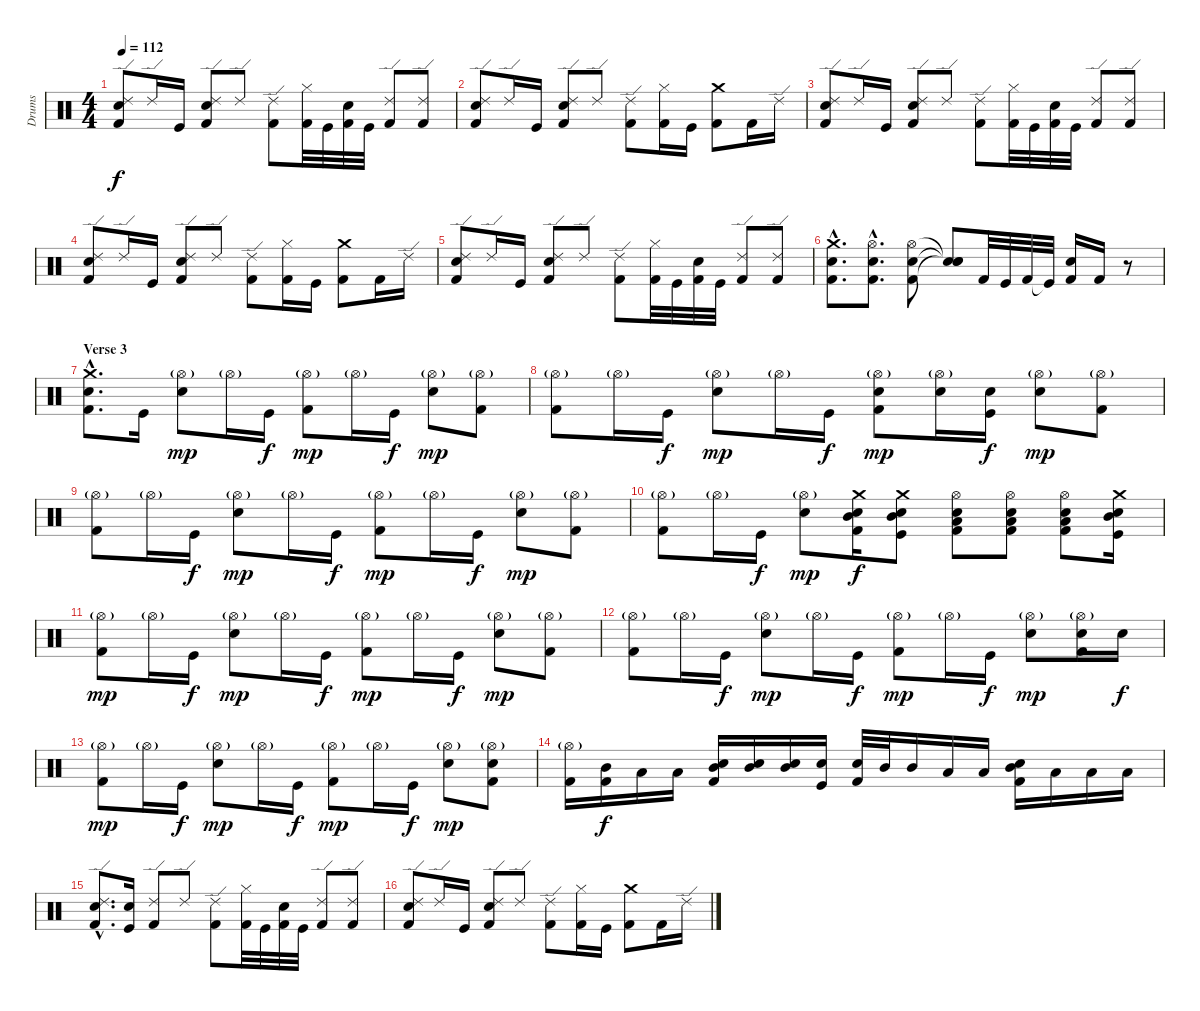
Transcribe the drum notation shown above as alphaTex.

\track ("Drums" "Drums") {instrument percussion}
\staff {score}
\articulation defaults
\ts (4 4)
\tempo 112
\clef neutral
\ks c
("Ride (edge) 2" "Snare (hit) 2" "Kick (hit) 2").8{dy f} "Ride (edge) 2".16 "Kick (hit)".16 ("Ride (edge) 2" "Snare (hit) 2" "Kick (hit) 2").8 "Ride (edge) 2".8 ("Ride (edge) 2" "Kick (hit) 2").8 ("Hi-Hat (closed)" "Kick (hit) 2").32 "Kick (hit)".32 ("Snare (hit) 2" "Kick (hit) 2").32 "Kick (hit)".32 ("Ride (edge) 2" "Kick (hit) 2").8 ("Ride (edge) 2" "Kick (hit) 2").8 |
("Ride (edge) 2" "Snare (hit) 2" "Kick (hit) 2").8 "Ride (edge) 2".16 "Kick (hit)".16 ("Ride (edge) 2" "Snare (hit) 2" "Kick (hit) 2").8 "Ride (edge) 2".8 ("Ride (edge) 2" "Kick (hit) 2").8 ("Hi-Hat (closed)" "Kick (hit) 2").16 "Kick (hit)".16 ("Crash medium (hit)" "Kick (hit) 2").8 "Kick (hit) 2".16 "Ride (edge) 2".16 |
("Ride (edge) 2" "Snare (hit) 2" "Kick (hit) 2").8 "Ride (edge) 2".16 "Kick (hit)".16 ("Ride (edge) 2" "Snare (hit) 2" "Kick (hit) 2").8 "Ride (edge) 2".8 ("Ride (edge) 2" "Kick (hit) 2").8 ("Hi-Hat (closed)" "Kick (hit) 2").32 "Kick (hit)".32 ("Snare (hit) 2" "Kick (hit) 2").32 "Kick (hit)".32 ("Ride (edge) 2" "Kick (hit) 2").8 ("Ride (edge) 2" "Kick (hit) 2").8 |
("Ride (edge) 2" "Snare (hit) 2" "Kick (hit) 2").8 "Ride (edge) 2".16 "Kick (hit)".16 ("Ride (edge) 2" "Snare (hit) 2" "Kick (hit) 2").8 "Ride (edge) 2".8 ("Ride (edge) 2" "Kick (hit) 2").8 ("Hi-Hat (closed)" "Kick (hit) 2").16 "Kick (hit)".16 ("Crash medium (hit)" "Kick (hit) 2").8 "Kick (hit) 2".16 "Ride (edge) 2".16 |
("Ride (edge) 2" "Snare (hit) 2" "Kick (hit) 2").8 "Ride (edge) 2".16 "Kick (hit)".16 ("Ride (edge) 2" "Snare (hit) 2" "Kick (hit) 2").8 "Ride (edge) 2".8 ("Ride (edge) 2" "Kick (hit) 2").8 ("Hi-Hat (closed)" "Kick (hit) 2").32 "Kick (hit)".32 ("Snare (hit) 2" "Kick (hit) 2").32 "Kick (hit)".32 ("Ride (edge) 2" "Kick (hit) 2").8 ("Ride (edge) 2" "Kick (hit) 2").8 |
("Crash medium (hit)"{hac} "Snare (hit) 2"{hac} "Kick (hit) 2"{hac}).8{d} ("Hi-Hat (open)"{hac} "Snare (hit) 2"{hac} "Kick (hit) 2"{hac}).8{d} ("Hi-Hat (open)" "Snare (hit) 2" "Kick (hit) 2").8 ("Snare (hit)"{t} "Snare (hit)"{t} "Snare (hit)"{t}).8 "Kick (hit) 2".32 "Kick (hit)".32 "Kick (hit) 2".32 "Kick (hit)"{t}.32 ("Snare (hit) 2" "Kick (hit) 2").16 "Kick (hit) 2".16 r.8 |
\section ("" "Verse 3")
("Crash medium (hit)"{hac} "Snare (hit) 2"{hac} "Kick (hit) 2"{hac}).8{d} "Kick (hit)".16 ("Hi-Hat (open)"{g} "Snare (hit) 2").8{dy mp} "Hi-Hat (open)"{g}.16 "Kick (hit)".16{dy f} ("Hi-Hat (open)"{g} "Kick (hit) 2").8{dy mp} "Hi-Hat (open)"{g}.16 "Kick (hit)".16{dy f} ("Hi-Hat (open)"{g} "Snare (hit) 2").8{dy mp} ("Hi-Hat (open)"{g} "Kick (hit) 2").8 |
("Hi-Hat (open)"{g} "Kick (hit) 2").8 "Hi-Hat (open)"{g}.16 "Kick (hit)".16{dy f} ("Hi-Hat (open)"{g} "Snare (hit) 2").8{dy mp} "Hi-Hat (open)"{g}.16 "Kick (hit)".16{dy f} ("Hi-Hat (open)"{g} "Snare (hit) 2" "Kick (hit) 2").8{dy mp} ("Hi-Hat (open)"{g} "Snare (hit) 2").16 ("Snare (hit) 2" "Kick (hit)").16{dy f} ("Hi-Hat (open)"{g} "Snare (hit) 2").8{dy mp} ("Hi-Hat (open)"{g} "Kick (hit) 2").8 |
("Hi-Hat (open)"{g} "Kick (hit) 2").8 "Hi-Hat (open)"{g}.16 "Kick (hit)".16{dy f} ("Hi-Hat (open)"{g} "Snare (hit) 2").8{dy mp} "Hi-Hat (open)"{g}.16 "Kick (hit)".16{dy f} ("Hi-Hat (open)"{g} "Kick (hit) 2").8{dy mp} "Hi-Hat (open)"{g}.16 "Kick (hit)".16{dy f} ("Hi-Hat (open)"{g} "Snare (hit) 2").8{dy mp} ("Hi-Hat (open)"{g} "Kick (hit) 2").8 |
("Hi-Hat (open)"{g} "Kick (hit) 2").8 "Hi-Hat (open)"{g}.16 "Kick (hit)".16{dy f} ("Hi-Hat (open)"{g} "Snare (hit) 2").8{dy mp} ("Crash medium (hit)" "Snare (hit) 2" "Kick (hit) 2" "Mid Tom (hit)").16{dy f} ("Crash medium (hit)" "Snare (hit) 2" "Kick (hit)" "Mid Tom (hit)").8 ("Hi-Hat (open)" "Snare (hit) 2" "Kick (hit) 2" "Low Tom (hit)").8 ("Hi-Hat (open)" "Snare (hit) 2" "Kick (hit) 2" "Low Tom (hit)").8 ("Hi-Hat (open)" "Snare (hit) 2" "Kick (hit) 2" "Low Tom (hit)").8 ("Crash medium (hit)" "Snare (hit) 2" "Kick (hit)" "Mid Tom (hit)").16 |
("Hi-Hat (open)"{g} "Kick (hit) 2").8{dy mp} "Hi-Hat (open)"{g}.16 "Kick (hit)".16{dy f} ("Hi-Hat (open)"{g} "Snare (hit) 2").8{dy mp} "Hi-Hat (open)"{g}.16 "Kick (hit)".16{dy f} ("Hi-Hat (open)"{g} "Kick (hit) 2").8{dy mp} "Hi-Hat (open)"{g}.16 "Kick (hit)".16{dy f} ("Hi-Hat (open)"{g} "Snare (hit) 2").8{dy mp} ("Hi-Hat (open)"{g} "Kick (hit) 2").8 |
("Hi-Hat (open)"{g} "Kick (hit) 2").8 "Hi-Hat (open)"{g}.16 "Kick (hit)".16{dy f} ("Hi-Hat (open)"{g} "Snare (hit) 2").8{dy mp} "Hi-Hat (open)"{g}.16 "Kick (hit)".16{dy f} ("Hi-Hat (open)"{g} "Kick (hit) 2").8{dy mp} "Hi-Hat (open)"{g}.16 "Kick (hit)".16{dy f} ("Hi-Hat (open)"{g} "Snare (hit) 2").8{dy mp} ("Hi-Hat (open)"{g} "Snare (hit) 2" "Kick (hit) 2").16 "Snare (hit) 2".16{dy f} |
("Hi-Hat (open)"{g} "Kick (hit) 2").8{dy mp} "Hi-Hat (open)"{g}.16 "Kick (hit)".16{dy f} ("Hi-Hat (open)"{g} "Snare (hit) 2").8{dy mp} "Hi-Hat (open)"{g}.16 "Kick (hit)".16{dy f} ("Hi-Hat (open)"{g} "Kick (hit) 2").8{dy mp} "Hi-Hat (open)"{g}.16 "Kick (hit)".16{dy f} ("Hi-Hat (open)"{g} "Snare (hit) 2").8{dy mp} ("Hi-Hat (open)"{g} "Snare (hit) 2" "Kick (hit) 2").8 |
("Hi-Hat (open)"{g} "Kick (hit) 2").16 ("Mid Tom (hit)" "Kick (hit) 2").16{dy f} "Low Tom (hit)".16 "Low Tom (hit)".16 ("Snare (hit) 2" "Mid Tom (hit)" "Kick (hit) 2").16 ("Snare (hit) 2" "Mid Tom (hit)").16 ("Snare (hit) 2" "Mid Tom (hit)").16 ("Snare (hit) 2" "Kick (hit)").16 ("Snare (hit) 2" "Kick (hit) 2").32 "Mid Tom (hit)".32 "Mid Tom (hit)".16 "Low Tom (hit)".16 "Low Tom (hit)".16 ("Snare (hit) 2" "Mid Tom (hit)" "Kick (hit) 2").16 "Low Tom (hit)".16 "Low Tom (hit)".16 "Low Tom (hit)".16 |
("Ride (edge) 2"{hac} "Snare (hit) 2"{hac} "Kick (hit) 2"{hac}).8{d} ("Snare (hit) 2" "Kick (hit)").16 ("Ride (edge) 2" "Kick (hit) 2").8 "Ride (edge) 2".8 ("Ride (edge) 2" "Kick (hit) 2").8 ("Hi-Hat (closed)" "Kick (hit) 2").32 "Kick (hit)".32 ("Snare (hit) 2" "Kick (hit) 2").32 "Kick (hit)".32 ("Ride (edge) 2" "Kick (hit) 2").8 ("Ride (edge) 2" "Kick (hit) 2").8 |
("Ride (edge) 2" "Snare (hit) 2" "Kick (hit) 2").8 "Ride (edge) 2".16 "Kick (hit)".16 ("Ride (edge) 2" "Snare (hit) 2" "Kick (hit) 2").8 "Ride (edge) 2".8 ("Ride (edge) 2" "Kick (hit) 2").8 ("Hi-Hat (closed)" "Kick (hit) 2").16 "Kick (hit)".16 ("Crash medium (hit)" "Kick (hit) 2").8 "Kick (hit) 2".16 "Ride (edge) 2".16
